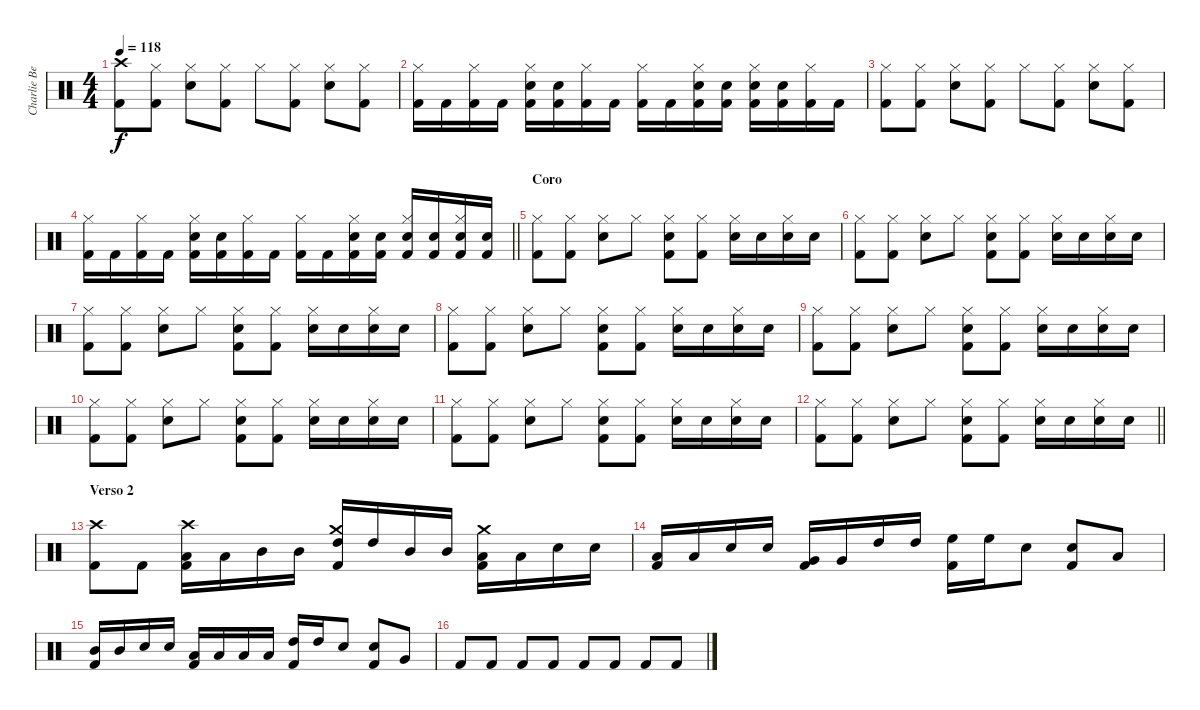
\track ("Charlie Benante" "Charlie Be") {instrument percussion}
\staff {score}
\articulation defaults
\ts (4 4)
\tempo 118
\clef neutral
\ks c
("Crash high (hit)" "Kick (hit) 2").8{dy f} ("Hi-Hat (closed)" "Kick (hit) 2").8 ("Hi-Hat (closed)" "Snare (hit) 2").8 ("Hi-Hat (closed)" "Kick (hit) 2").8 "Hi-Hat (closed)".8 ("Hi-Hat (closed)" "Kick (hit) 2").8 ("Hi-Hat (closed)" "Snare (hit) 2").8 ("Hi-Hat (closed)" "Kick (hit) 2").8 |
("Hi-Hat (closed)" "Kick (hit) 2").16 "Kick (hit) 2".16 ("Hi-Hat (closed)" "Kick (hit) 2").16 "Kick (hit) 2".16 ("Hi-Hat (closed)" "Snare (hit) 2" "Kick (hit) 2").16 ("Snare (hit) 2" "Kick (hit) 2").16 ("Hi-Hat (closed)" "Kick (hit) 2").16 "Kick (hit) 2".16 ("Hi-Hat (closed)" "Kick (hit) 2").16 "Kick (hit) 2".16 ("Hi-Hat (closed)" "Snare (hit) 2" "Kick (hit) 2").16 ("Snare (hit) 2" "Kick (hit) 2").16 ("Hi-Hat (closed)" "Snare (hit) 2" "Kick (hit) 2").16 ("Snare (hit) 2" "Kick (hit) 2").16 ("Hi-Hat (closed)" "Kick (hit) 2").16 "Kick (hit) 2".16 |
("Hi-Hat (closed)" "Kick (hit) 2").8 ("Hi-Hat (closed)" "Kick (hit) 2").8 ("Hi-Hat (closed)" "Snare (hit) 2").8 ("Hi-Hat (closed)" "Kick (hit) 2").8 "Hi-Hat (closed)".8 ("Hi-Hat (closed)" "Kick (hit) 2").8 ("Hi-Hat (closed)" "Snare (hit) 2").8 ("Hi-Hat (closed)" "Kick (hit) 2").8 |
\barLineRight lightlight
("Hi-Hat (closed)" "Kick (hit) 2").16 "Kick (hit) 2".16 ("Hi-Hat (closed)" "Kick (hit) 2").16 "Kick (hit) 2".16 ("Hi-Hat (closed)" "Snare (hit) 2" "Kick (hit) 2").16 ("Snare (hit) 2" "Kick (hit) 2").16 ("Hi-Hat (closed)" "Kick (hit) 2").16 "Kick (hit) 2".16 ("Hi-Hat (closed)" "Kick (hit) 2").16 "Kick (hit) 2".16 ("Hi-Hat (closed)" "Snare (hit) 2" "Kick (hit) 2").16 ("Snare (hit) 2" "Kick (hit) 2").16 ("Hi-Hat (closed)" "Snare (hit) 2" "Kick (hit) 2").16 ("Snare (hit) 2" "Kick (hit) 2").16 ("Hi-Hat (closed)" "Snare (hit) 2" "Kick (hit) 2").16 ("Snare (hit) 2" "Kick (hit) 2").16 |
\section ("" "Coro")
("Hi-Hat (closed)" "Kick (hit) 2").8 ("Hi-Hat (closed)" "Kick (hit) 2").8 ("Hi-Hat (closed)" "Snare (hit) 2").8 "Hi-Hat (closed)".8 ("Hi-Hat (closed)" "Snare (hit) 2" "Kick (hit) 2").8 ("Hi-Hat (closed)" "Kick (hit) 2").8 ("Hi-Hat (closed)" "Snare (hit) 2").16 "Snare (hit) 2".16 ("Hi-Hat (closed)" "Snare (hit) 2").16 "Snare (hit) 2".16 |
("Hi-Hat (closed)" "Kick (hit) 2").8 ("Hi-Hat (closed)" "Kick (hit) 2").8 ("Hi-Hat (closed)" "Snare (hit) 2").8 "Hi-Hat (closed)".8 ("Hi-Hat (closed)" "Snare (hit) 2" "Kick (hit) 2").8 ("Hi-Hat (closed)" "Kick (hit) 2").8 ("Hi-Hat (closed)" "Snare (hit) 2").16 "Snare (hit) 2".16 ("Hi-Hat (closed)" "Snare (hit) 2").16 "Snare (hit) 2".16 |
("Hi-Hat (closed)" "Kick (hit) 2").8 ("Hi-Hat (closed)" "Kick (hit) 2").8 ("Hi-Hat (closed)" "Snare (hit) 2").8 "Hi-Hat (closed)".8 ("Hi-Hat (closed)" "Snare (hit) 2" "Kick (hit) 2").8 ("Hi-Hat (closed)" "Kick (hit) 2").8 ("Hi-Hat (closed)" "Snare (hit) 2").16 "Snare (hit) 2".16 ("Hi-Hat (closed)" "Snare (hit) 2").16 "Snare (hit) 2".16 |
("Hi-Hat (closed)" "Kick (hit) 2").8 ("Hi-Hat (closed)" "Kick (hit) 2").8 ("Hi-Hat (closed)" "Snare (hit) 2").8 "Hi-Hat (closed)".8 ("Hi-Hat (closed)" "Snare (hit) 2" "Kick (hit) 2").8 ("Hi-Hat (closed)" "Kick (hit) 2").8 ("Hi-Hat (closed)" "Snare (hit) 2").16 "Snare (hit) 2".16 ("Hi-Hat (closed)" "Snare (hit) 2").16 "Snare (hit) 2".16 |
("Hi-Hat (closed)" "Kick (hit) 2").8 ("Hi-Hat (closed)" "Kick (hit) 2").8 ("Hi-Hat (closed)" "Snare (hit) 2").8 "Hi-Hat (closed)".8 ("Hi-Hat (closed)" "Snare (hit) 2" "Kick (hit) 2").8 ("Hi-Hat (closed)" "Kick (hit) 2").8 ("Hi-Hat (closed)" "Snare (hit) 2").16 "Snare (hit) 2".16 ("Hi-Hat (closed)" "Snare (hit) 2").16 "Snare (hit) 2".16 |
("Hi-Hat (closed)" "Kick (hit) 2").8 ("Hi-Hat (closed)" "Kick (hit) 2").8 ("Hi-Hat (closed)" "Snare (hit) 2").8 "Hi-Hat (closed)".8 ("Hi-Hat (closed)" "Snare (hit) 2" "Kick (hit) 2").8 ("Hi-Hat (closed)" "Kick (hit) 2").8 ("Hi-Hat (closed)" "Snare (hit) 2").16 "Snare (hit) 2".16 ("Hi-Hat (closed)" "Snare (hit) 2").16 "Snare (hit) 2".16 |
("Hi-Hat (closed)" "Kick (hit) 2").8 ("Hi-Hat (closed)" "Kick (hit) 2").8 ("Hi-Hat (closed)" "Snare (hit) 2").8 "Hi-Hat (closed)".8 ("Hi-Hat (closed)" "Snare (hit) 2" "Kick (hit) 2").8 ("Hi-Hat (closed)" "Kick (hit) 2").8 ("Hi-Hat (closed)" "Snare (hit) 2").16 "Snare (hit) 2".16 ("Hi-Hat (closed)" "Snare (hit) 2").16 "Snare (hit) 2".16 |
\barLineRight lightlight
("Hi-Hat (closed)" "Kick (hit) 2").8 ("Hi-Hat (closed)" "Kick (hit) 2").8 ("Hi-Hat (closed)" "Snare (hit) 2").8 "Hi-Hat (closed)".8 ("Hi-Hat (closed)" "Snare (hit) 2" "Kick (hit) 2").8 ("Hi-Hat (closed)" "Kick (hit) 2").8 ("Hi-Hat (closed)" "Snare (hit) 2").16 "Snare (hit) 2".16 ("Hi-Hat (closed)" "Snare (hit) 2").16 "Snare (hit) 2".16 |
\section ("" "Verso 2")
("Crash high (hit)" "Kick (hit) 2").8 "Kick (hit) 2".8 ("Crash high (hit)" "Low Tom (hit)" "Kick (hit) 2").16 "Low Tom (hit)".16 "Mid Tom (hit)".16 "Mid Tom (hit)".16 ("Crash medium (hit)" "High Tom (hit)" "Kick (hit) 2").16 "High Tom (hit)".16 "Mid Tom (hit)".16 "Mid Tom (hit)".16 ("Crash medium (hit)" "Low Tom (hit)" "Kick (hit) 2").16 "Low Tom (hit)".16 "Snare (hit) 2".16 "Snare (hit) 2".16 |
("Low Tom (hit)" "Kick (hit) 2").16 "Low Tom (hit)".16 "Snare (hit) 2".16 "Snare (hit) 2".16 ("Very Low Tom (hit)" "Kick (hit) 2").16 "Very Low Tom (hit)".16 "High Tom (hit)".16 "High Tom (hit)".16 ("High Floor Tom (hit)" "Kick (hit) 2").16 "High Floor Tom (hit)".16 "Snare (hit) 2".8 ("Snare (hit) 2" "Kick (hit) 2").8 "Low Tom (hit)".8 |
("Mid Tom (hit)" "Kick (hit) 2").16 "Mid Tom (hit)".16 "Snare (hit) 2".16 "Snare (hit) 2".16 ("Low Floor Tom (hit)" "Kick (hit) 2").16 "Low Floor Tom (hit)".16 "Low Tom (hit)".16 "Low Tom (hit)".16 ("High Tom (hit)" "Kick (hit) 2").16 "High Tom (hit)".16 "Snare (hit) 2".8 ("Snare (hit) 2" "Kick (hit) 2").8 "Very Low Tom (hit)".8 |
"Kick (hit) 2".8 "Kick (hit) 2".8 "Kick (hit) 2".8 "Kick (hit) 2".8 "Kick (hit) 2".8 "Kick (hit) 2".8 "Kick (hit) 2".8 "Kick (hit) 2".8
